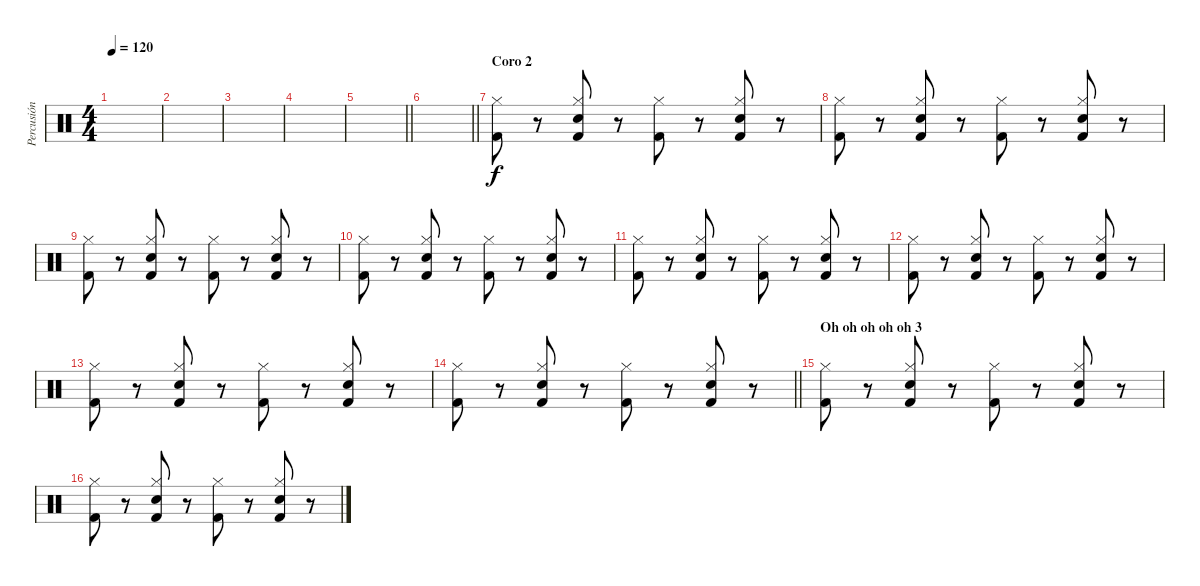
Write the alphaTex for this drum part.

\track ("Percusión" "Percusión") {instrument percussion}
\staff {score}
\articulation defaults
\ts (4 4)
\tempo 120
\clef neutral
\ks c
|
|
|
|
\barLineRight lightlight
|
\barLineRight lightlight
|
\section ("" "Coro 2")
("Kick (hit) 2" "Hi-Hat (closed)").8 r.8 ("Kick (hit) 2" "Hi-Hat (closed)" "Snare (hit) 2").8 r.8 ("Kick (hit) 2" "Hi-Hat (closed)").8 r.8 ("Kick (hit) 2" "Hi-Hat (closed)" "Snare (hit) 2").8 r.8 |
("Kick (hit) 2" "Hi-Hat (closed)").8 r.8 ("Kick (hit) 2" "Hi-Hat (closed)" "Snare (hit) 2").8 r.8 ("Kick (hit) 2" "Hi-Hat (closed)").8 r.8 ("Kick (hit) 2" "Hi-Hat (closed)" "Snare (hit) 2").8 r.8 |
("Kick (hit) 2" "Hi-Hat (closed)").8 r.8 ("Kick (hit) 2" "Hi-Hat (closed)" "Snare (hit) 2").8 r.8 ("Kick (hit) 2" "Hi-Hat (closed)").8 r.8 ("Kick (hit) 2" "Hi-Hat (closed)" "Snare (hit) 2").8 r.8 |
("Kick (hit) 2" "Hi-Hat (closed)").8 r.8 ("Kick (hit) 2" "Hi-Hat (closed)" "Snare (hit) 2").8 r.8 ("Kick (hit) 2" "Hi-Hat (closed)").8 r.8 ("Kick (hit) 2" "Hi-Hat (closed)" "Snare (hit) 2").8 r.8 |
("Kick (hit) 2" "Hi-Hat (closed)").8 r.8 ("Kick (hit) 2" "Hi-Hat (closed)" "Snare (hit) 2").8 r.8 ("Kick (hit) 2" "Hi-Hat (closed)").8 r.8 ("Kick (hit) 2" "Hi-Hat (closed)" "Snare (hit) 2").8 r.8 |
("Kick (hit) 2" "Hi-Hat (closed)").8 r.8 ("Kick (hit) 2" "Hi-Hat (closed)" "Snare (hit) 2").8 r.8 ("Kick (hit) 2" "Hi-Hat (closed)").8 r.8 ("Kick (hit) 2" "Hi-Hat (closed)" "Snare (hit) 2").8 r.8 |
("Kick (hit) 2" "Hi-Hat (closed)").8 r.8 ("Kick (hit) 2" "Hi-Hat (closed)" "Snare (hit) 2").8 r.8 ("Kick (hit) 2" "Hi-Hat (closed)").8 r.8 ("Kick (hit) 2" "Hi-Hat (closed)" "Snare (hit) 2").8 r.8 |
\barLineRight lightlight
("Kick (hit) 2" "Hi-Hat (closed)").8 r.8 ("Kick (hit) 2" "Hi-Hat (closed)" "Snare (hit) 2").8 r.8 ("Kick (hit) 2" "Hi-Hat (closed)").8 r.8 ("Kick (hit) 2" "Hi-Hat (closed)" "Snare (hit) 2").8 r.8 |
\section ("" "Oh oh oh oh oh 3")
("Kick (hit) 2" "Hi-Hat (closed)").8 r.8 ("Kick (hit) 2" "Hi-Hat (closed)" "Snare (hit) 2").8 r.8 ("Kick (hit) 2" "Hi-Hat (closed)").8 r.8 ("Kick (hit) 2" "Hi-Hat (closed)" "Snare (hit) 2").8 r.8 |
("Kick (hit) 2" "Hi-Hat (closed)").8 r.8 ("Kick (hit) 2" "Hi-Hat (closed)" "Snare (hit) 2").8 r.8 ("Kick (hit) 2" "Hi-Hat (closed)").8 r.8 ("Kick (hit) 2" "Hi-Hat (closed)" "Snare (hit) 2").8 r.8
